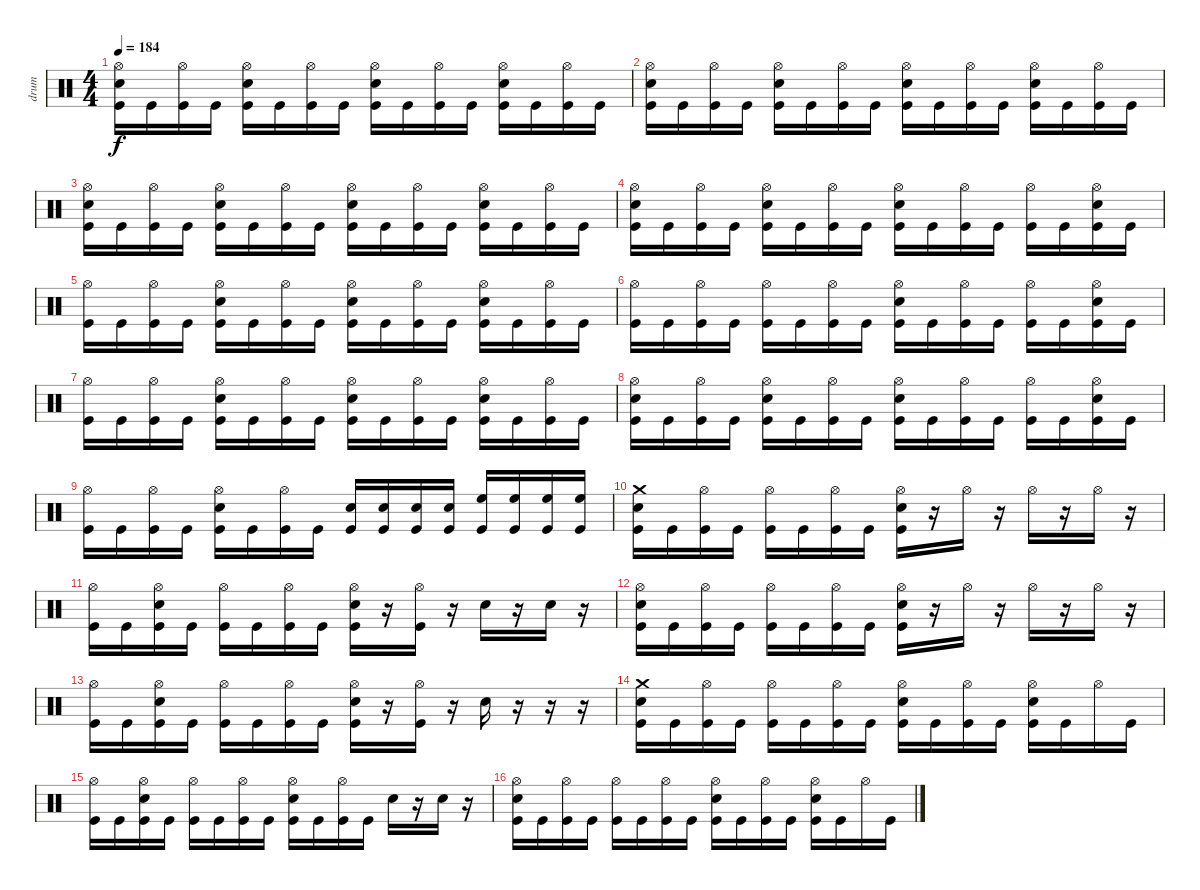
\track ("drum" "drum") {instrument percussion}
\staff {score}
\articulation defaults
\ts (4 4)
\tempo 184
\clef neutral
\ks c
("Hi-Hat (open)" "Electric Snare (hit)" "Kick (hit)").16{dy f} "Kick (hit)".16 ("Hi-Hat (open)" "Kick (hit)").16 "Kick (hit)".16 ("Hi-Hat (open)" "Electric Snare (hit)" "Kick (hit)").16 "Kick (hit)".16 ("Hi-Hat (open)" "Kick (hit)").16 "Kick (hit)".16 ("Hi-Hat (open)" "Electric Snare (hit)" "Kick (hit)").16 "Kick (hit)".16 ("Hi-Hat (open)" "Kick (hit)").16 "Kick (hit)".16 ("Hi-Hat (open)" "Electric Snare (hit)" "Kick (hit)").16 "Kick (hit)".16 ("Hi-Hat (open)" "Kick (hit)").16 "Kick (hit)".16 |
("Hi-Hat (open)" "Electric Snare (hit)" "Kick (hit)").16 "Kick (hit)".16 ("Hi-Hat (open)" "Kick (hit)").16 "Kick (hit)".16 ("Hi-Hat (open)" "Electric Snare (hit)" "Kick (hit)").16 "Kick (hit)".16 ("Hi-Hat (open)" "Kick (hit)").16 "Kick (hit)".16 ("Hi-Hat (open)" "Electric Snare (hit)" "Kick (hit)").16 "Kick (hit)".16 ("Hi-Hat (open)" "Kick (hit)").16 "Kick (hit)".16 ("Hi-Hat (open)" "Electric Snare (hit)" "Kick (hit)").16 "Kick (hit)".16 ("Hi-Hat (open)" "Kick (hit)").16 "Kick (hit)".16 |
("Hi-Hat (open)" "Electric Snare (hit)" "Kick (hit)").16 "Kick (hit)".16 ("Hi-Hat (open)" "Kick (hit)").16 "Kick (hit)".16 ("Hi-Hat (open)" "Electric Snare (hit)" "Kick (hit)").16 "Kick (hit)".16 ("Hi-Hat (open)" "Kick (hit)").16 "Kick (hit)".16 ("Hi-Hat (open)" "Electric Snare (hit)" "Kick (hit)").16 "Kick (hit)".16 ("Hi-Hat (open)" "Kick (hit)").16 "Kick (hit)".16 ("Hi-Hat (open)" "Electric Snare (hit)" "Kick (hit)").16 "Kick (hit)".16 ("Hi-Hat (open)" "Kick (hit)").16 "Kick (hit)".16 |
("Hi-Hat (open)" "Electric Snare (hit)" "Kick (hit)").16 "Kick (hit)".16 ("Hi-Hat (open)" "Kick (hit)").16 "Kick (hit)".16 ("Hi-Hat (open)" "Electric Snare (hit)" "Kick (hit)").16 "Kick (hit)".16 ("Hi-Hat (open)" "Kick (hit)").16 "Kick (hit)".16 ("Hi-Hat (open)" "Electric Snare (hit)" "Kick (hit)").16 "Kick (hit)".16 ("Hi-Hat (open)" "Kick (hit)").16 "Kick (hit)".16 ("Hi-Hat (open)" "Kick (hit)").16 "Kick (hit)".16 ("Hi-Hat (open)" "Electric Snare (hit)" "Kick (hit)").16 "Kick (hit)".16 |
("Hi-Hat (open)" "Kick (hit)").16 "Kick (hit)".16 ("Hi-Hat (open)" "Kick (hit)").16 "Kick (hit)".16 ("Hi-Hat (open)" "Electric Snare (hit)" "Kick (hit)").16 "Kick (hit)".16 ("Hi-Hat (open)" "Kick (hit)").16 "Kick (hit)".16 ("Hi-Hat (open)" "Electric Snare (hit)" "Kick (hit)").16 "Kick (hit)".16 ("Hi-Hat (open)" "Kick (hit)").16 "Kick (hit)".16 ("Hi-Hat (open)" "Electric Snare (hit)" "Kick (hit)").16 "Kick (hit)".16 ("Hi-Hat (open)" "Kick (hit)").16 "Kick (hit)".16 |
("Hi-Hat (open)" "Kick (hit)").16 "Kick (hit)".16 ("Hi-Hat (open)" "Kick (hit)").16 "Kick (hit)".16 ("Hi-Hat (open)" "Kick (hit)").16 "Kick (hit)".16 ("Hi-Hat (open)" "Kick (hit)").16 "Kick (hit)".16 ("Hi-Hat (open)" "Electric Snare (hit)" "Kick (hit)").16 "Kick (hit)".16 ("Hi-Hat (open)" "Kick (hit)").16 "Kick (hit)".16 ("Hi-Hat (open)" "Kick (hit)").16 "Kick (hit)".16 ("Hi-Hat (open)" "Electric Snare (hit)" "Kick (hit)").16 "Kick (hit)".16 |
("Hi-Hat (open)" "Kick (hit)").16 "Kick (hit)".16 ("Hi-Hat (open)" "Kick (hit)").16 "Kick (hit)".16 ("Hi-Hat (open)" "Electric Snare (hit)" "Kick (hit)").16 "Kick (hit)".16 ("Hi-Hat (open)" "Kick (hit)").16 "Kick (hit)".16 ("Hi-Hat (open)" "Electric Snare (hit)" "Kick (hit)").16 "Kick (hit)".16 ("Hi-Hat (open)" "Kick (hit)").16 "Kick (hit)".16 ("Hi-Hat (open)" "Electric Snare (hit)" "Kick (hit)").16 "Kick (hit)".16 ("Hi-Hat (open)" "Kick (hit)").16 "Kick (hit)".16 |
("Hi-Hat (open)" "Electric Snare (hit)" "Kick (hit)").16 "Kick (hit)".16 ("Hi-Hat (open)" "Kick (hit)").16 "Kick (hit)".16 ("Hi-Hat (open)" "Electric Snare (hit)" "Kick (hit)").16 "Kick (hit)".16 ("Hi-Hat (open)" "Kick (hit)").16 "Kick (hit)".16 ("Hi-Hat (open)" "Electric Snare (hit)" "Kick (hit)").16 "Kick (hit)".16 ("Hi-Hat (open)" "Kick (hit)").16 "Kick (hit)".16 ("Hi-Hat (open)" "Kick (hit)").16 "Kick (hit)".16 ("Hi-Hat (open)" "Electric Snare (hit)" "Kick (hit)").16 "Kick (hit)".16 |
("Hi-Hat (open)" "Kick (hit)").16 "Kick (hit)".16 ("Hi-Hat (open)" "Kick (hit)").16 "Kick (hit)".16 ("Hi-Hat (open)" "Electric Snare (hit)" "Kick (hit)").16 "Kick (hit)".16 ("Hi-Hat (open)" "Kick (hit)").16 "Kick (hit)".16 ("Electric Snare (hit)" "Kick (hit)").16 ("Electric Snare (hit)" "Kick (hit)").16 ("Electric Snare (hit)" "Kick (hit)").16 ("Electric Snare (hit)" "Kick (hit)").16 ("High Floor Tom (hit)" "Kick (hit)").16 ("High Floor Tom (hit)" "Kick (hit)").16 ("High Floor Tom (hit)" "Kick (hit)").16 ("High Floor Tom (hit)" "Kick (hit)").16 |
("Crash medium (hit)" "Electric Snare (hit)" "Kick (hit)").16 "Kick (hit)".16 ("Hi-Hat (open)" "Kick (hit)").16 "Kick (hit)".16 ("Hi-Hat (open)" "Kick (hit)").16 "Kick (hit)".16 ("Hi-Hat (open)" "Kick (hit)").16 "Kick (hit)".16 ("Hi-Hat (open)" "Electric Snare (hit)" "Kick (hit)").16 r.16 "Hi-Hat (open)".16 r.16 "Hi-Hat (open)".16 r.16 "Hi-Hat (open)".16 r.16 |
("Hi-Hat (open)" "Kick (hit)").16 "Kick (hit)".16 ("Hi-Hat (open)" "Electric Snare (hit)" "Kick (hit)").16 "Kick (hit)".16 ("Hi-Hat (open)" "Kick (hit)").16 "Kick (hit)".16 ("Hi-Hat (open)" "Kick (hit)").16 "Kick (hit)".16 ("Hi-Hat (open)" "Electric Snare (hit)" "Kick (hit)").16 r.16 ("Hi-Hat (open)" "Kick (hit)").16 r.16 "Electric Snare (hit)".16 r.16 "Electric Snare (hit)".16 r.16 |
("Hi-Hat (open)" "Electric Snare (hit)" "Kick (hit)").16 "Kick (hit)".16 ("Hi-Hat (open)" "Kick (hit)").16 "Kick (hit)".16 ("Hi-Hat (open)" "Kick (hit)").16 "Kick (hit)".16 ("Hi-Hat (open)" "Kick (hit)").16 "Kick (hit)".16 ("Hi-Hat (open)" "Electric Snare (hit)" "Kick (hit)").16 r.16 "Hi-Hat (open)".16 r.16 "Hi-Hat (open)".16 r.16 "Hi-Hat (open)".16 r.16 |
("Hi-Hat (open)" "Kick (hit)").16 "Kick (hit)".16 ("Hi-Hat (open)" "Electric Snare (hit)" "Kick (hit)").16 "Kick (hit)".16 ("Hi-Hat (open)" "Kick (hit)").16 "Kick (hit)".16 ("Hi-Hat (open)" "Kick (hit)").16 "Kick (hit)".16 ("Hi-Hat (open)" "Electric Snare (hit)" "Kick (hit)").16 r.16 ("Hi-Hat (open)" "Kick (hit)").16 r.16 "Electric Snare (hit)".16 r.16 r.16 r.16 |
("Crash medium (hit)" "Electric Snare (hit)" "Kick (hit)").16 "Kick (hit)".16 ("Hi-Hat (open)" "Kick (hit)").16 "Kick (hit)".16 ("Hi-Hat (open)" "Kick (hit)").16 "Kick (hit)".16 ("Hi-Hat (open)" "Kick (hit)").16 "Kick (hit)".16 ("Hi-Hat (open)" "Electric Snare (hit)" "Kick (hit)").16 "Kick (hit)".16 ("Hi-Hat (open)" "Kick (hit)").16 "Kick (hit)".16 ("Hi-Hat (open)" "Electric Snare (hit)" "Kick (hit)").16 "Kick (hit)".16 "Hi-Hat (open)".16 "Kick (hit)".16 |
("Hi-Hat (open)" "Kick (hit)").16 "Kick (hit)".16 ("Hi-Hat (open)" "Electric Snare (hit)" "Kick (hit)").16 "Kick (hit)".16 ("Hi-Hat (open)" "Kick (hit)").16 "Kick (hit)".16 ("Hi-Hat (open)" "Kick (hit)").16 "Kick (hit)".16 ("Hi-Hat (open)" "Electric Snare (hit)" "Kick (hit)").16 "Kick (hit)".16 ("Hi-Hat (open)" "Kick (hit)").16 "Kick (hit)".16 "Electric Snare (hit)".16 r.16 "Electric Snare (hit)".16 r.16 |
("Hi-Hat (open)" "Electric Snare (hit)" "Kick (hit)").16 "Kick (hit)".16 ("Hi-Hat (open)" "Kick (hit)").16 "Kick (hit)".16 ("Hi-Hat (open)" "Kick (hit)").16 "Kick (hit)".16 ("Hi-Hat (open)" "Kick (hit)").16 "Kick (hit)".16 ("Hi-Hat (open)" "Electric Snare (hit)" "Kick (hit)").16 "Kick (hit)".16 ("Hi-Hat (open)" "Kick (hit)").16 "Kick (hit)".16 ("Hi-Hat (open)" "Electric Snare (hit)" "Kick (hit)").16 "Kick (hit)".16 "Hi-Hat (open)".16 "Kick (hit)".16
